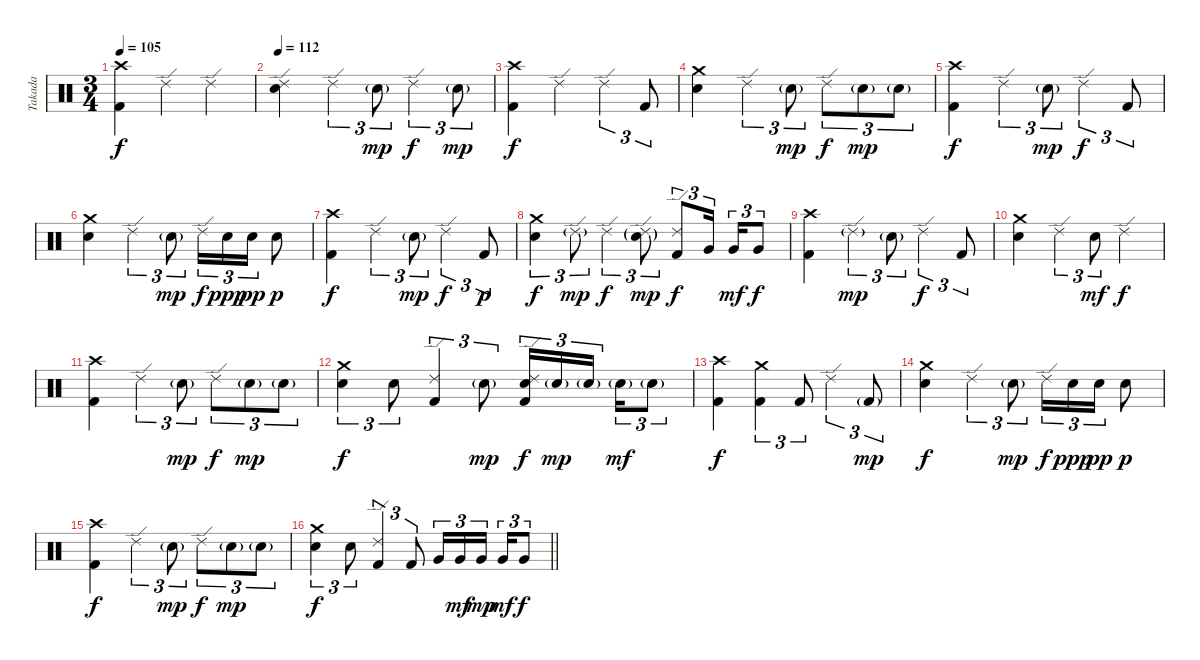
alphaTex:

\track ("Takada" "Takada") {instrument percussion}
\staff {score}
\articulation defaults
\ts (3 4)
\section ("" "")
\tempo 105
\clef neutral
\ks c
("Crash high (hit)" "Kick (hit) 2").4{dy f} "Ride (edge) 2".4 "Ride (edge) 2".4 |
\tempo 112
("Ride (edge) 2" "Electric Snare (hit)").4 "Ride (edge) 2".4{tu (3 2)} "Electric Snare (hit)"{g}.8{tu (3 2) dy mp} "Ride (edge) 2".4{tu (3 2) dy f} "Electric Snare (hit)"{g}.8{tu (3 2) dy mp} |
("Crash high (hit)" "Kick (hit) 2").4{dy f} "Ride (edge) 2".4 "Ride (edge) 2".4{tu (3 2)} "Kick (hit) 2".8{tu (3 2)} |
("Crash medium (hit)" "Electric Snare (hit)").4 "Ride (edge) 2".4{tu (3 2)} "Electric Snare (hit)"{g}.8{tu (3 2) dy mp} "Ride (edge) 2".8{tu (3 2) dy f} "Electric Snare (hit)"{g}.8{tu (3 2) dy mp} "Electric Snare (hit)"{g}.8{tu (3 2)} |
("Crash high (hit)" "Kick (hit) 2").4{dy f} "Ride (edge) 2".4{tu (3 2)} "Electric Snare (hit)"{g}.8{tu (3 2) dy mp} "Ride (edge) 2".4{tu (3 2) dy f} "Kick (hit) 2".8{tu (3 2)} |
("Crash medium (hit)" "Electric Snare (hit)").4 "Ride (edge) 2".4{tu (3 2)} "Electric Snare (hit)"{g}.8{tu (3 2) dy mp} "Ride (edge) 2".16{tu (3 2) dy f} "Electric Snare (hit)".16{tu (3 2) dy ppp} "Electric Snare (hit)".16{tu (3 2) dy pp} "Electric Snare (hit)".8{dy p} |
("Crash high (hit)" "Kick (hit) 2").4{dy f} "Ride (edge) 2".4{tu (3 2)} "Electric Snare (hit)"{g}.8{tu (3 2) dy mp} "Ride (edge) 2".4{tu (3 2) dy f} "Kick (hit) 2".8{tu (3 2) dy p} |
("Crash medium (hit)" "Electric Snare (hit)").4{tu (3 2) dy f} "Ride (edge) 2"{g}.8{tu (3 2) dy mp} "Ride (edge) 2".4{tu (3 2) dy f} ("Ride (edge) 2"{g} "Electric Snare (hit)"{g}).8{tu (3 2) dy mp} ("Ride (edge) 2" "Kick (hit) 2").8{tu (3 2) dy f} "Very Low Tom (hit)".16{tu (3 2) beam splitsecondary} "Very Low Tom (hit)".16{tu (3 2) dy mf} "Very Low Tom (hit)".8{tu (3 2) dy f} |
("Crash high (hit)" "Kick (hit) 2").4 "Ride (edge) 2"{g}.4{tu (3 2) dy mp} "Electric Snare (hit)"{g}.8{tu (3 2)} "Ride (edge) 2".4{tu (3 2) dy f} "Kick (hit) 2".8{tu (3 2)} |
("Crash medium (hit)" "Electric Snare (hit)").4 "Ride (edge) 2".4{tu (3 2)} "Electric Snare (hit)".8{tu (3 2) dy mf} "Ride (edge) 2".4{dy f} |
("Crash high (hit)" "Kick (hit) 2").4 "Ride (edge) 2".4{tu (3 2)} "Electric Snare (hit)"{g}.8{tu (3 2) dy mp} "Ride (edge) 2".8{tu (3 2) dy f} "Electric Snare (hit)"{g}.8{tu (3 2) dy mp} "Electric Snare (hit)"{g}.8{tu (3 2)} |
("Crash medium (hit)" "Electric Snare (hit)").4{tu (3 2) dy f} "Electric Snare (hit)".8{tu (3 2)} ("Ride (edge) 2" "Kick (hit) 2").4{tu (3 2)} "Electric Snare (hit)"{g}.8{tu (3 2) dy mp} ("Ride (edge) 2" "Electric Snare (hit)" "Kick (hit) 2").16{tu (3 2) dy f} "Electric Snare (hit)"{g}.16{tu (3 2) dy mp} "Electric Snare (hit)"{g}.16{tu (3 2) beam splitsecondary} "Electric Snare (hit)"{g}.16{tu (3 2) dy mf} "Electric Snare (hit)"{g}.8{tu (3 2)} |
("Crash high (hit)" "Kick (hit) 2").4{dy f} ("Crash medium (hit)" "Kick (hit) 2").4{tu (3 2)} "Kick (hit) 2".8{tu (3 2)} "Ride (edge) 2".4{tu (3 2)} "Kick (hit) 2"{g}.8{tu (3 2) dy mp} |
("Crash medium (hit)" "Electric Snare (hit)").4{dy f} "Ride (edge) 2".4{tu (3 2)} "Electric Snare (hit)"{g}.8{tu (3 2) dy mp} "Ride (edge) 2".16{tu (3 2) dy f} "Electric Snare (hit)".16{tu (3 2) dy ppp} "Electric Snare (hit)".16{tu (3 2) dy pp} "Electric Snare (hit)".8{dy p} |
("Crash high (hit)" "Kick (hit) 2").4{dy f} "Ride (edge) 2".4{tu (3 2)} "Electric Snare (hit)"{g}.8{tu (3 2) dy mp} "Ride (edge) 2".8{tu (3 2) dy f} "Electric Snare (hit)"{g}.8{tu (3 2) dy mp} "Electric Snare (hit)"{g}.8{tu (3 2)} |
\barLineRight lightlight
("Crash medium (hit)" "Electric Snare (hit)").4{tu (3 2) dy f} "Electric Snare (hit)".8{tu (3 2)} ("Ride (edge) 2" "Kick (hit) 2").4{tu (3 2)} "Kick (hit) 2".8{tu (3 2)} "Very Low Tom (hit)".16{tu (3 2)} "Very Low Tom (hit)".16{tu (3 2) dy mf} "Very Low Tom (hit)".16{tu (3 2) dy mp beam splitsecondary} "Very Low Tom (hit)".16{tu (3 2) dy mf} "Very Low Tom (hit)".8{tu (3 2) dy f}
